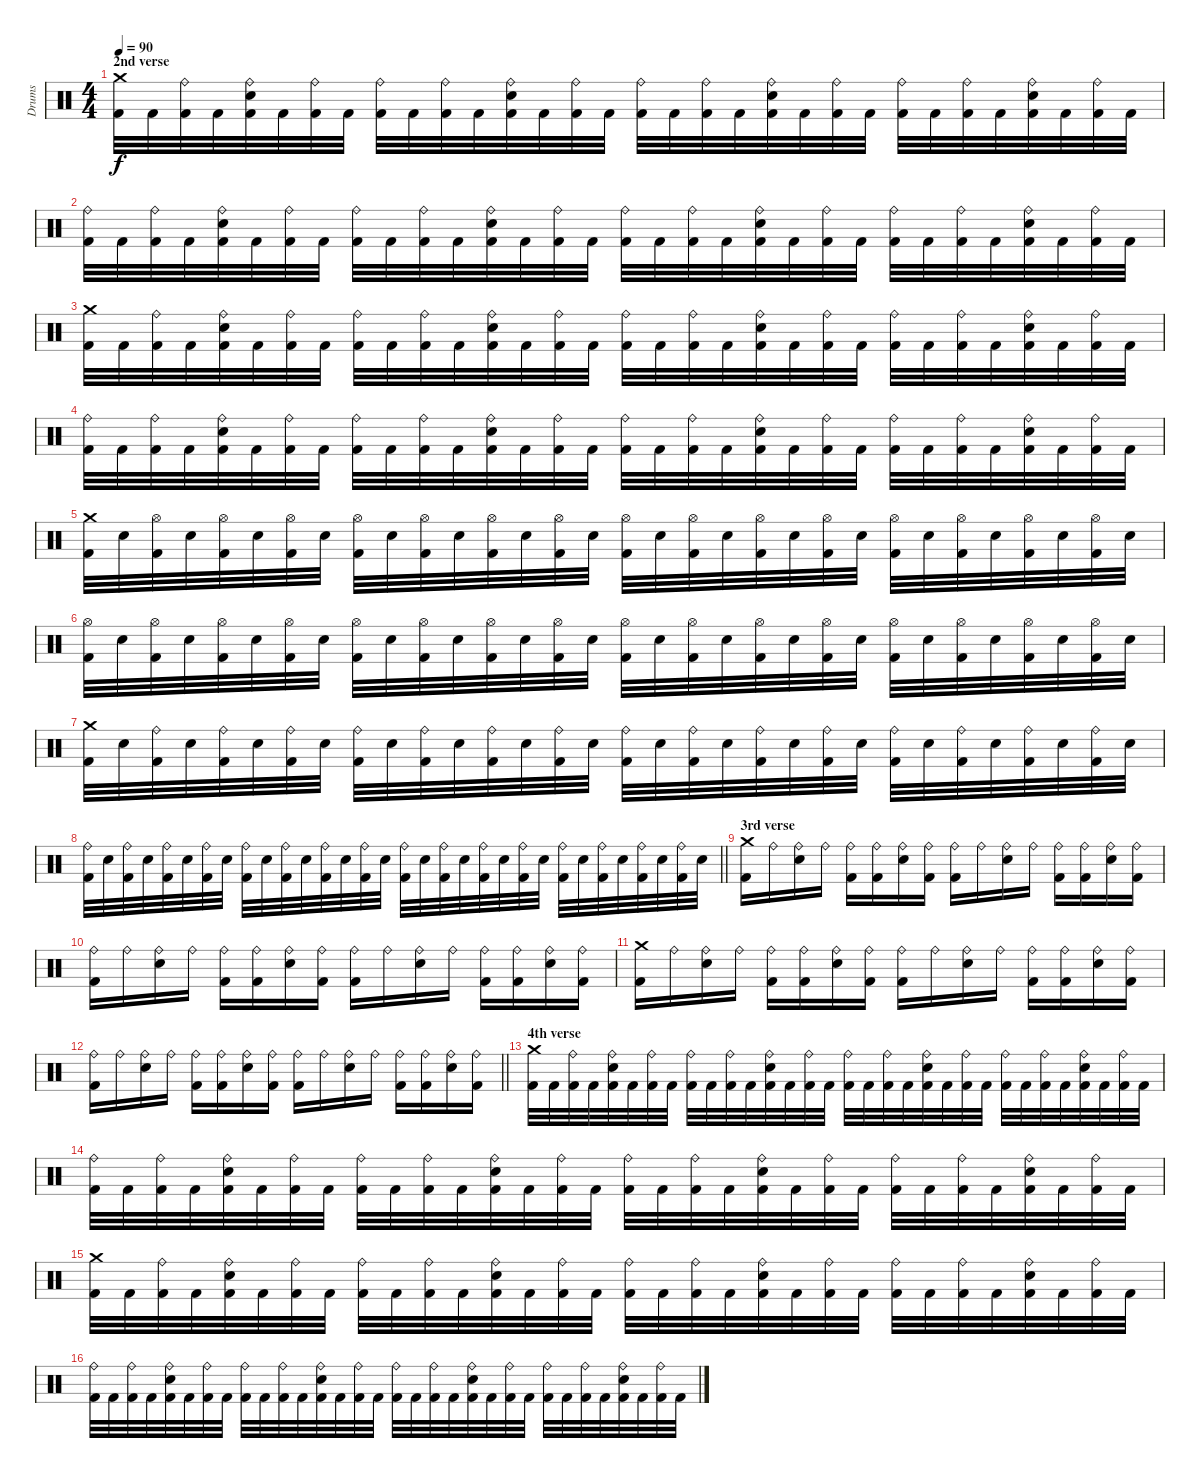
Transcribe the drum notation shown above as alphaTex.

\track ("Drums" "Drums") {instrument percussion}
\staff {score}
\articulation defaults
\ts (4 4)
\section ("" "2nd verse")
\tempo 90
\clef neutral
\ks c
("Crash medium (hit)" "Kick (hit) 2").32{dy f} "Kick (hit) 2".32 ("Ride (bell)" "Kick (hit) 2").32 "Kick (hit) 2".32 ("Ride (bell)" "Snare (hit) 2" "Kick (hit) 2").32 "Kick (hit) 2".32 ("Ride (bell)" "Kick (hit) 2").32 "Kick (hit) 2".32 ("Ride (bell)" "Kick (hit) 2").32 "Kick (hit) 2".32 ("Ride (bell)" "Kick (hit) 2").32 "Kick (hit) 2".32 ("Ride (bell)" "Snare (hit) 2" "Kick (hit) 2").32 "Kick (hit) 2".32 ("Ride (bell)" "Kick (hit) 2").32 "Kick (hit) 2".32 ("Ride (bell)" "Kick (hit) 2").32 "Kick (hit) 2".32 ("Ride (bell)" "Kick (hit) 2").32 "Kick (hit) 2".32 ("Ride (bell)" "Snare (hit) 2" "Kick (hit) 2").32 "Kick (hit) 2".32 ("Ride (bell)" "Kick (hit) 2").32 "Kick (hit) 2".32 ("Ride (bell)" "Kick (hit) 2").32 "Kick (hit) 2".32 ("Ride (bell)" "Kick (hit) 2").32 "Kick (hit) 2".32 ("Ride (bell)" "Snare (hit) 2" "Kick (hit) 2").32 "Kick (hit) 2".32 ("Ride (bell)" "Kick (hit) 2").32 "Kick (hit) 2".32 |
("Ride (bell)" "Kick (hit) 2").32 "Kick (hit) 2".32 ("Ride (bell)" "Kick (hit) 2").32 "Kick (hit) 2".32 ("Ride (bell)" "Snare (hit) 2" "Kick (hit) 2").32 "Kick (hit) 2".32 ("Ride (bell)" "Kick (hit) 2").32 "Kick (hit) 2".32 ("Ride (bell)" "Kick (hit) 2").32 "Kick (hit) 2".32 ("Ride (bell)" "Kick (hit) 2").32 "Kick (hit) 2".32 ("Ride (bell)" "Snare (hit) 2" "Kick (hit) 2").32 "Kick (hit) 2".32 ("Ride (bell)" "Kick (hit) 2").32 "Kick (hit) 2".32 ("Ride (bell)" "Kick (hit) 2").32 "Kick (hit) 2".32 ("Ride (bell)" "Kick (hit) 2").32 "Kick (hit) 2".32 ("Ride (bell)" "Snare (hit) 2" "Kick (hit) 2").32 "Kick (hit) 2".32 ("Ride (bell)" "Kick (hit) 2").32 "Kick (hit) 2".32 ("Ride (bell)" "Kick (hit) 2").32 "Kick (hit) 2".32 ("Ride (bell)" "Kick (hit) 2").32 "Kick (hit) 2".32 ("Ride (bell)" "Snare (hit) 2" "Kick (hit) 2").32 "Kick (hit) 2".32 ("Ride (bell)" "Kick (hit) 2").32 "Kick (hit) 2".32 |
("Crash medium (hit)" "Kick (hit) 2").32 "Kick (hit) 2".32 ("Ride (bell)" "Kick (hit) 2").32 "Kick (hit) 2".32 ("Ride (bell)" "Snare (hit) 2" "Kick (hit) 2").32 "Kick (hit) 2".32 ("Ride (bell)" "Kick (hit) 2").32 "Kick (hit) 2".32 ("Ride (bell)" "Kick (hit) 2").32 "Kick (hit) 2".32 ("Ride (bell)" "Kick (hit) 2").32 "Kick (hit) 2".32 ("Ride (bell)" "Snare (hit) 2" "Kick (hit) 2").32 "Kick (hit) 2".32 ("Ride (bell)" "Kick (hit) 2").32 "Kick (hit) 2".32 ("Ride (bell)" "Kick (hit) 2").32 "Kick (hit) 2".32 ("Ride (bell)" "Kick (hit) 2").32 "Kick (hit) 2".32 ("Ride (bell)" "Snare (hit) 2" "Kick (hit) 2").32 "Kick (hit) 2".32 ("Ride (bell)" "Kick (hit) 2").32 "Kick (hit) 2".32 ("Ride (bell)" "Kick (hit) 2").32 "Kick (hit) 2".32 ("Ride (bell)" "Kick (hit) 2").32 "Kick (hit) 2".32 ("Ride (bell)" "Snare (hit) 2" "Kick (hit) 2").32 "Kick (hit) 2".32 ("Ride (bell)" "Kick (hit) 2").32 "Kick (hit) 2".32 |
("Ride (bell)" "Kick (hit) 2").32 "Kick (hit) 2".32 ("Ride (bell)" "Kick (hit) 2").32 "Kick (hit) 2".32 ("Ride (bell)" "Snare (hit) 2" "Kick (hit) 2").32 "Kick (hit) 2".32 ("Ride (bell)" "Kick (hit) 2").32 "Kick (hit) 2".32 ("Ride (bell)" "Kick (hit) 2").32 "Kick (hit) 2".32 ("Ride (bell)" "Kick (hit) 2").32 "Kick (hit) 2".32 ("Ride (bell)" "Snare (hit) 2" "Kick (hit) 2").32 "Kick (hit) 2".32 ("Ride (bell)" "Kick (hit) 2").32 "Kick (hit) 2".32 ("Ride (bell)" "Kick (hit) 2").32 "Kick (hit) 2".32 ("Ride (bell)" "Kick (hit) 2").32 "Kick (hit) 2".32 ("Ride (bell)" "Snare (hit) 2" "Kick (hit) 2").32 "Kick (hit) 2".32 ("Ride (bell)" "Kick (hit) 2").32 "Kick (hit) 2".32 ("Ride (bell)" "Kick (hit) 2").32 "Kick (hit) 2".32 ("Ride (bell)" "Kick (hit) 2").32 "Kick (hit) 2".32 ("Ride (bell)" "Snare (hit) 2" "Kick (hit) 2").32 "Kick (hit) 2".32 ("Ride (bell)" "Kick (hit) 2").32 "Kick (hit) 2".32 |
("Crash medium (hit)" "Kick (hit) 2").32 "Snare (hit) 2".32 ("Hi-Hat (open)" "Kick (hit) 2").32 "Snare (hit) 2".32 ("Hi-Hat (open)" "Kick (hit) 2").32 "Snare (hit) 2".32 ("Hi-Hat (open)" "Kick (hit) 2").32 "Snare (hit) 2".32 ("Hi-Hat (open)" "Kick (hit) 2").32 "Snare (hit) 2".32 ("Hi-Hat (open)" "Kick (hit) 2").32 "Snare (hit) 2".32 ("Hi-Hat (open)" "Kick (hit) 2").32 "Snare (hit) 2".32 ("Hi-Hat (open)" "Kick (hit) 2").32 "Snare (hit) 2".32 ("Hi-Hat (open)" "Kick (hit) 2").32 "Snare (hit) 2".32 ("Hi-Hat (open)" "Kick (hit) 2").32 "Snare (hit) 2".32 ("Hi-Hat (open)" "Kick (hit) 2").32 "Snare (hit) 2".32 ("Hi-Hat (open)" "Kick (hit) 2").32 "Snare (hit) 2".32 ("Hi-Hat (open)" "Kick (hit) 2").32 "Snare (hit) 2".32 ("Hi-Hat (open)" "Kick (hit) 2").32 "Snare (hit) 2".32 ("Hi-Hat (open)" "Kick (hit) 2").32 "Snare (hit) 2".32 ("Hi-Hat (open)" "Kick (hit) 2").32 "Snare (hit) 2".32 |
("Hi-Hat (open)" "Kick (hit) 2").32 "Snare (hit) 2".32 ("Hi-Hat (open)" "Kick (hit) 2").32 "Snare (hit) 2".32 ("Hi-Hat (open)" "Kick (hit) 2").32 "Snare (hit) 2".32 ("Hi-Hat (open)" "Kick (hit) 2").32 "Snare (hit) 2".32 ("Hi-Hat (open)" "Kick (hit) 2").32 "Snare (hit) 2".32 ("Hi-Hat (open)" "Kick (hit) 2").32 "Snare (hit) 2".32 ("Hi-Hat (open)" "Kick (hit) 2").32 "Snare (hit) 2".32 ("Hi-Hat (open)" "Kick (hit) 2").32 "Snare (hit) 2".32 ("Hi-Hat (open)" "Kick (hit) 2").32 "Snare (hit) 2".32 ("Hi-Hat (open)" "Kick (hit) 2").32 "Snare (hit) 2".32 ("Hi-Hat (open)" "Kick (hit) 2").32 "Snare (hit) 2".32 ("Hi-Hat (open)" "Kick (hit) 2").32 "Snare (hit) 2".32 ("Hi-Hat (open)" "Kick (hit) 2").32 "Snare (hit) 2".32 ("Hi-Hat (open)" "Kick (hit) 2").32 "Snare (hit) 2".32 ("Hi-Hat (open)" "Kick (hit) 2").32 "Snare (hit) 2".32 ("Hi-Hat (open)" "Kick (hit) 2").32 "Snare (hit) 2".32 |
("Crash medium (hit)" "Kick (hit) 2").32 "Snare (hit) 2".32 ("Ride (bell)" "Kick (hit) 2").32 "Snare (hit) 2".32 ("Ride (bell)" "Kick (hit) 2").32 "Snare (hit) 2".32 ("Ride (bell)" "Kick (hit) 2").32 "Snare (hit) 2".32 ("Ride (bell)" "Kick (hit) 2").32 "Snare (hit) 2".32 ("Ride (bell)" "Kick (hit) 2").32 "Snare (hit) 2".32 ("Ride (bell)" "Kick (hit) 2").32 "Snare (hit) 2".32 ("Ride (bell)" "Kick (hit) 2").32 "Snare (hit) 2".32 ("Ride (bell)" "Kick (hit) 2").32 "Snare (hit) 2".32 ("Ride (bell)" "Kick (hit) 2").32 "Snare (hit) 2".32 ("Ride (bell)" "Kick (hit) 2").32 "Snare (hit) 2".32 ("Ride (bell)" "Kick (hit) 2").32 "Snare (hit) 2".32 ("Ride (bell)" "Kick (hit) 2").32 "Snare (hit) 2".32 ("Ride (bell)" "Kick (hit) 2").32 "Snare (hit) 2".32 ("Ride (bell)" "Kick (hit) 2").32 "Snare (hit) 2".32 ("Ride (bell)" "Kick (hit) 2").32 "Snare (hit) 2".32 |
\barLineRight lightlight
("Ride (bell)" "Kick (hit) 2").32 "Snare (hit) 2".32 ("Ride (bell)" "Kick (hit) 2").32 "Snare (hit) 2".32 ("Ride (bell)" "Kick (hit) 2").32 "Snare (hit) 2".32 ("Ride (bell)" "Kick (hit) 2").32 "Snare (hit) 2".32 ("Ride (bell)" "Kick (hit) 2").32 "Snare (hit) 2".32 ("Ride (bell)" "Kick (hit) 2").32 "Snare (hit) 2".32 ("Ride (bell)" "Kick (hit) 2").32 "Snare (hit) 2".32 ("Ride (bell)" "Kick (hit) 2").32 "Snare (hit) 2".32 ("Ride (bell)" "Kick (hit) 2").32 "Snare (hit) 2".32 ("Ride (bell)" "Kick (hit) 2").32 "Snare (hit) 2".32 ("Ride (bell)" "Kick (hit) 2").32 "Snare (hit) 2".32 ("Ride (bell)" "Kick (hit) 2").32 "Snare (hit) 2".32 ("Ride (bell)" "Kick (hit) 2").32 "Snare (hit) 2".32 ("Ride (bell)" "Kick (hit) 2").32 "Snare (hit) 2".32 ("Ride (bell)" "Kick (hit) 2").32 "Snare (hit) 2".32 ("Ride (bell)" "Kick (hit) 2").32 "Snare (hit) 2".32 |
\section ("" "3rd verse")
("Crash medium (hit)" "Kick (hit) 2").16 "Ride (bell)".16 ("Ride (bell)" "Snare (hit) 2").16 "Ride (bell)".16 ("Ride (bell)" "Kick (hit) 2").16 ("Ride (bell)" "Kick (hit) 2").16 ("Ride (bell)" "Snare (hit) 2").16 ("Ride (bell)" "Kick (hit) 2").16 ("Ride (bell)" "Kick (hit) 2").16 "Ride (bell)".16 ("Ride (bell)" "Snare (hit) 2").16 "Ride (bell)".16 ("Ride (bell)" "Kick (hit) 2").16 ("Ride (bell)" "Kick (hit) 2").16 ("Ride (bell)" "Snare (hit) 2").16 ("Ride (bell)" "Kick (hit) 2").16 |
("Ride (bell)" "Kick (hit) 2").16 "Ride (bell)".16 ("Ride (bell)" "Snare (hit) 2").16 "Ride (bell)".16 ("Ride (bell)" "Kick (hit) 2").16 ("Ride (bell)" "Kick (hit) 2").16 ("Ride (bell)" "Snare (hit) 2").16 ("Ride (bell)" "Kick (hit) 2").16 ("Ride (bell)" "Kick (hit) 2").16 "Ride (bell)".16 ("Ride (bell)" "Snare (hit) 2").16 "Ride (bell)".16 ("Ride (bell)" "Kick (hit) 2").16 ("Ride (bell)" "Kick (hit) 2").16 ("Ride (bell)" "Snare (hit) 2").16 ("Ride (bell)" "Kick (hit) 2").16 |
("Crash medium (hit)" "Kick (hit) 2").16 "Ride (bell)".16 ("Ride (bell)" "Snare (hit) 2").16 "Ride (bell)".16 ("Ride (bell)" "Kick (hit) 2").16 ("Ride (bell)" "Kick (hit) 2").16 ("Ride (bell)" "Snare (hit) 2").16 ("Ride (bell)" "Kick (hit) 2").16 ("Ride (bell)" "Kick (hit) 2").16 "Ride (bell)".16 ("Ride (bell)" "Snare (hit) 2").16 "Ride (bell)".16 ("Ride (bell)" "Kick (hit) 2").16 ("Ride (bell)" "Kick (hit) 2").16 ("Ride (bell)" "Snare (hit) 2").16 ("Ride (bell)" "Kick (hit) 2").16 |
\barLineRight lightlight
("Ride (bell)" "Kick (hit) 2").16 "Ride (bell)".16 ("Ride (bell)" "Snare (hit) 2").16 "Ride (bell)".16 ("Ride (bell)" "Kick (hit) 2").16 ("Ride (bell)" "Kick (hit) 2").16 ("Ride (bell)" "Snare (hit) 2").16 ("Ride (bell)" "Kick (hit) 2").16 ("Ride (bell)" "Kick (hit) 2").16 "Ride (bell)".16 ("Ride (bell)" "Snare (hit) 2").16 "Ride (bell)".16 ("Ride (bell)" "Kick (hit) 2").16 ("Ride (bell)" "Kick (hit) 2").16 ("Ride (bell)" "Snare (hit) 2").16 ("Ride (bell)" "Kick (hit) 2").16 |
\section ("" "4th verse")
("Crash medium (hit)" "Kick (hit) 2").32 "Kick (hit) 2".32 ("Ride (bell)" "Kick (hit) 2").32 "Kick (hit) 2".32 ("Ride (bell)" "Snare (hit) 2" "Kick (hit) 2").32 "Kick (hit) 2".32 ("Ride (bell)" "Kick (hit) 2").32 "Kick (hit) 2".32 ("Ride (bell)" "Kick (hit) 2").32 "Kick (hit) 2".32 ("Ride (bell)" "Kick (hit) 2").32 "Kick (hit) 2".32 ("Ride (bell)" "Snare (hit) 2" "Kick (hit) 2").32 "Kick (hit) 2".32 ("Ride (bell)" "Kick (hit) 2").32 "Kick (hit) 2".32 ("Ride (bell)" "Kick (hit) 2").32 "Kick (hit) 2".32 ("Ride (bell)" "Kick (hit) 2").32 "Kick (hit) 2".32 ("Ride (bell)" "Snare (hit) 2" "Kick (hit) 2").32 "Kick (hit) 2".32 ("Ride (bell)" "Kick (hit) 2").32 "Kick (hit) 2".32 ("Ride (bell)" "Kick (hit) 2").32 "Kick (hit) 2".32 ("Ride (bell)" "Kick (hit) 2").32 "Kick (hit) 2".32 ("Ride (bell)" "Snare (hit) 2" "Kick (hit) 2").32 "Kick (hit) 2".32 ("Ride (bell)" "Kick (hit) 2").32 "Kick (hit) 2".32 |
("Ride (bell)" "Kick (hit) 2").32 "Kick (hit) 2".32 ("Ride (bell)" "Kick (hit) 2").32 "Kick (hit) 2".32 ("Ride (bell)" "Snare (hit) 2" "Kick (hit) 2").32 "Kick (hit) 2".32 ("Ride (bell)" "Kick (hit) 2").32 "Kick (hit) 2".32 ("Ride (bell)" "Kick (hit) 2").32 "Kick (hit) 2".32 ("Ride (bell)" "Kick (hit) 2").32 "Kick (hit) 2".32 ("Ride (bell)" "Snare (hit) 2" "Kick (hit) 2").32 "Kick (hit) 2".32 ("Ride (bell)" "Kick (hit) 2").32 "Kick (hit) 2".32 ("Ride (bell)" "Kick (hit) 2").32 "Kick (hit) 2".32 ("Ride (bell)" "Kick (hit) 2").32 "Kick (hit) 2".32 ("Ride (bell)" "Snare (hit) 2" "Kick (hit) 2").32 "Kick (hit) 2".32 ("Ride (bell)" "Kick (hit) 2").32 "Kick (hit) 2".32 ("Ride (bell)" "Kick (hit) 2").32 "Kick (hit) 2".32 ("Ride (bell)" "Kick (hit) 2").32 "Kick (hit) 2".32 ("Ride (bell)" "Snare (hit) 2" "Kick (hit) 2").32 "Kick (hit) 2".32 ("Ride (bell)" "Kick (hit) 2").32 "Kick (hit) 2".32 |
("Crash medium (hit)" "Kick (hit) 2").32 "Kick (hit) 2".32 ("Ride (bell)" "Kick (hit) 2").32 "Kick (hit) 2".32 ("Ride (bell)" "Snare (hit) 2" "Kick (hit) 2").32 "Kick (hit) 2".32 ("Ride (bell)" "Kick (hit) 2").32 "Kick (hit) 2".32 ("Ride (bell)" "Kick (hit) 2").32 "Kick (hit) 2".32 ("Ride (bell)" "Kick (hit) 2").32 "Kick (hit) 2".32 ("Ride (bell)" "Snare (hit) 2" "Kick (hit) 2").32 "Kick (hit) 2".32 ("Ride (bell)" "Kick (hit) 2").32 "Kick (hit) 2".32 ("Ride (bell)" "Kick (hit) 2").32 "Kick (hit) 2".32 ("Ride (bell)" "Kick (hit) 2").32 "Kick (hit) 2".32 ("Ride (bell)" "Snare (hit) 2" "Kick (hit) 2").32 "Kick (hit) 2".32 ("Ride (bell)" "Kick (hit) 2").32 "Kick (hit) 2".32 ("Ride (bell)" "Kick (hit) 2").32 "Kick (hit) 2".32 ("Ride (bell)" "Kick (hit) 2").32 "Kick (hit) 2".32 ("Ride (bell)" "Snare (hit) 2" "Kick (hit) 2").32 "Kick (hit) 2".32 ("Ride (bell)" "Kick (hit) 2").32 "Kick (hit) 2".32 |
("Ride (bell)" "Kick (hit) 2").32 "Kick (hit) 2".32 ("Ride (bell)" "Kick (hit) 2").32 "Kick (hit) 2".32 ("Ride (bell)" "Snare (hit) 2" "Kick (hit) 2").32 "Kick (hit) 2".32 ("Ride (bell)" "Kick (hit) 2").32 "Kick (hit) 2".32 ("Ride (bell)" "Kick (hit) 2").32 "Kick (hit) 2".32 ("Ride (bell)" "Kick (hit) 2").32 "Kick (hit) 2".32 ("Ride (bell)" "Snare (hit) 2" "Kick (hit) 2").32 "Kick (hit) 2".32 ("Ride (bell)" "Kick (hit) 2").32 "Kick (hit) 2".32 ("Ride (bell)" "Kick (hit) 2").32 "Kick (hit) 2".32 ("Ride (bell)" "Kick (hit) 2").32 "Kick (hit) 2".32 ("Ride (bell)" "Snare (hit) 2" "Kick (hit) 2").32 "Kick (hit) 2".32 ("Ride (bell)" "Kick (hit) 2").32 "Kick (hit) 2".32 ("Ride (bell)" "Kick (hit) 2").32 "Kick (hit) 2".32 ("Ride (bell)" "Kick (hit) 2").32 "Kick (hit) 2".32 ("Ride (bell)" "Snare (hit) 2" "Kick (hit) 2").32 "Kick (hit) 2".32 ("Ride (bell)" "Kick (hit) 2").32 "Kick (hit) 2".32
